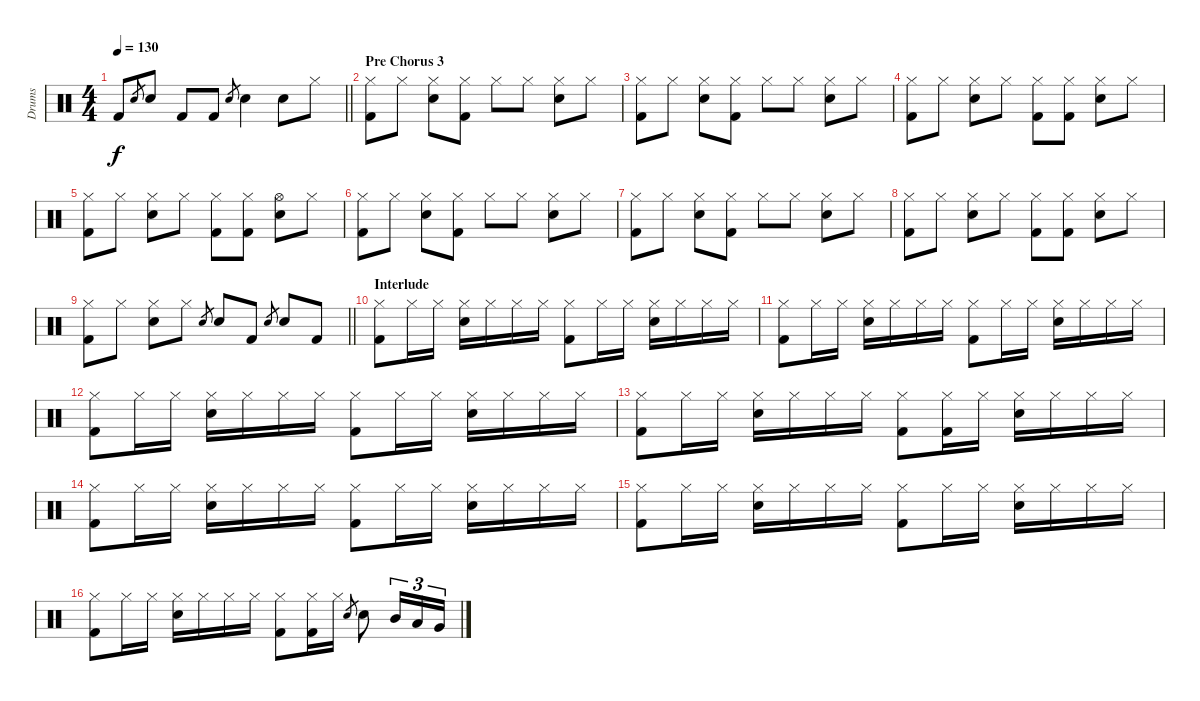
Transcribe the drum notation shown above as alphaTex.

\track ("Drums" "Drums") {instrument percussion}
\staff {score}
\articulation defaults
\ts (4 4)
\tempo 130
\clef neutral
\barLineRight lightlight
\ks c "Kick (hit) 2".8{dy f} "Snare (hit) 2".8{gr} "Snare (hit) 2".8 "Kick (hit) 2".8 "Kick (hit) 2".8 "Snare (hit) 2".8{gr} "Snare (hit) 2".4 "Snare (hit) 2".8 "Hi-Hat (closed)".8
|
\section ("" "Pre Chorus 3")
("Hi-Hat (closed)" "Kick (hit) 2").8 "Hi-Hat (closed)".8 ("Hi-Hat (closed)" "Snare (hit) 2").8 ("Hi-Hat (closed)" "Kick (hit) 2").8 "Hi-Hat (closed)".8 "Hi-Hat (closed)".8 ("Hi-Hat (closed)" "Snare (hit) 2").8 "Hi-Hat (closed)".8 |
("Hi-Hat (closed)" "Kick (hit) 2").8 "Hi-Hat (closed)".8 ("Hi-Hat (closed)" "Snare (hit) 2").8 ("Hi-Hat (closed)" "Kick (hit) 2").8 "Hi-Hat (closed)".8 "Hi-Hat (closed)".8 ("Hi-Hat (closed)" "Snare (hit) 2").8 "Hi-Hat (closed)".8 |
("Hi-Hat (closed)" "Kick (hit) 2").8 "Hi-Hat (closed)".8 ("Hi-Hat (closed)" "Snare (hit) 2").8 "Hi-Hat (closed)".8 ("Hi-Hat (closed)" "Kick (hit) 2").8 ("Hi-Hat (closed)" "Kick (hit) 2").8 ("Hi-Hat (closed)" "Snare (hit) 2").8 "Hi-Hat (closed)".8 |
("Hi-Hat (closed)" "Kick (hit) 2").8 "Hi-Hat (closed)".8 ("Hi-Hat (closed)" "Snare (hit) 2").8 "Hi-Hat (closed)".8 ("Hi-Hat (closed)" "Kick (hit) 2").8 ("Hi-Hat (closed)" "Kick (hit) 2").8 ("Hi-Hat (open)" "Snare (hit) 2").8 "Hi-Hat (closed)".8 |
("Hi-Hat (closed)" "Kick (hit) 2").8 "Hi-Hat (closed)".8 ("Hi-Hat (closed)" "Snare (hit) 2").8 ("Hi-Hat (closed)" "Kick (hit) 2").8 "Hi-Hat (closed)".8 "Hi-Hat (closed)".8 ("Hi-Hat (closed)" "Snare (hit) 2").8 "Hi-Hat (closed)".8 |
("Hi-Hat (closed)" "Kick (hit) 2").8 "Hi-Hat (closed)".8 ("Hi-Hat (closed)" "Snare (hit) 2").8 ("Hi-Hat (closed)" "Kick (hit) 2").8 "Hi-Hat (closed)".8 "Hi-Hat (closed)".8 ("Hi-Hat (closed)" "Snare (hit) 2").8 "Hi-Hat (closed)".8 |
("Hi-Hat (closed)" "Kick (hit) 2").8 "Hi-Hat (closed)".8 ("Hi-Hat (closed)" "Snare (hit) 2").8 "Hi-Hat (closed)".8 ("Hi-Hat (closed)" "Kick (hit) 2").8 ("Hi-Hat (closed)" "Kick (hit) 2").8 ("Hi-Hat (closed)" "Snare (hit) 2").8 "Hi-Hat (closed)".8 |
\barLineRight lightlight
("Hi-Hat (closed)" "Kick (hit) 2").8 "Hi-Hat (closed)".8 ("Hi-Hat (closed)" "Snare (hit) 2").8 "Hi-Hat (closed)".8 "Snare (hit) 2".8{gr} "Snare (hit) 2".8 "Kick (hit) 2".8 "Snare (hit) 2".8{gr} "Snare (hit) 2".8 "Kick (hit) 2".8 |
\section ("" "Interlude")
("Hi-Hat (closed)" "Kick (hit) 2").8 "Hi-Hat (closed)".16 "Hi-Hat (closed)".16 ("Hi-Hat (closed)" "Snare (hit) 2").16 "Hi-Hat (closed)".16 "Hi-Hat (closed)".16 "Hi-Hat (closed)".16 ("Hi-Hat (closed)" "Kick (hit) 2").8 "Hi-Hat (closed)".16 "Hi-Hat (closed)".16 ("Hi-Hat (closed)" "Snare (hit) 2").16 "Hi-Hat (closed)".16 "Hi-Hat (closed)".16 "Hi-Hat (closed)".16 |
("Hi-Hat (closed)" "Kick (hit) 2").8 "Hi-Hat (closed)".16 "Hi-Hat (closed)".16 ("Hi-Hat (closed)" "Snare (hit) 2").16 "Hi-Hat (closed)".16 "Hi-Hat (closed)".16 "Hi-Hat (closed)".16 ("Hi-Hat (closed)" "Kick (hit) 2").8 "Hi-Hat (closed)".16 "Hi-Hat (closed)".16 ("Hi-Hat (closed)" "Snare (hit) 2").16 "Hi-Hat (closed)".16 "Hi-Hat (closed)".16 "Hi-Hat (closed)".16 |
("Hi-Hat (closed)" "Kick (hit) 2").8 "Hi-Hat (closed)".16 "Hi-Hat (closed)".16 ("Hi-Hat (closed)" "Snare (hit) 2").16 "Hi-Hat (closed)".16 "Hi-Hat (closed)".16 "Hi-Hat (closed)".16 ("Hi-Hat (closed)" "Kick (hit) 2").8 "Hi-Hat (closed)".16 "Hi-Hat (closed)".16 ("Hi-Hat (closed)" "Snare (hit) 2").16 "Hi-Hat (closed)".16 "Hi-Hat (closed)".16 "Hi-Hat (closed)".16 |
("Hi-Hat (closed)" "Kick (hit) 2").8 "Hi-Hat (closed)".16 "Hi-Hat (closed)".16 ("Hi-Hat (closed)" "Snare (hit) 2").16 "Hi-Hat (closed)".16 "Hi-Hat (closed)".16 "Hi-Hat (closed)".16 ("Hi-Hat (closed)" "Kick (hit) 2").8 ("Hi-Hat (closed)" "Kick (hit) 2").16 "Hi-Hat (closed)".16 ("Hi-Hat (closed)" "Snare (hit) 2").16 "Hi-Hat (closed)".16 "Hi-Hat (closed)".16 "Hi-Hat (closed)".16 |
("Hi-Hat (closed)" "Kick (hit) 2").8 "Hi-Hat (closed)".16 "Hi-Hat (closed)".16 ("Hi-Hat (closed)" "Snare (hit) 2").16 "Hi-Hat (closed)".16 "Hi-Hat (closed)".16 "Hi-Hat (closed)".16 ("Hi-Hat (closed)" "Kick (hit) 2").8 "Hi-Hat (closed)".16 "Hi-Hat (closed)".16 ("Hi-Hat (closed)" "Snare (hit) 2").16 "Hi-Hat (closed)".16 "Hi-Hat (closed)".16 "Hi-Hat (closed)".16 |
("Hi-Hat (closed)" "Kick (hit) 2").8 "Hi-Hat (closed)".16 "Hi-Hat (closed)".16 ("Hi-Hat (closed)" "Snare (hit) 2").16 "Hi-Hat (closed)".16 "Hi-Hat (closed)".16 "Hi-Hat (closed)".16 ("Hi-Hat (closed)" "Kick (hit) 2").8 "Hi-Hat (closed)".16 "Hi-Hat (closed)".16 ("Hi-Hat (closed)" "Snare (hit) 2").16 "Hi-Hat (closed)".16 "Hi-Hat (closed)".16 "Hi-Hat (closed)".16 |
("Hi-Hat (closed)" "Kick (hit) 2").8 "Hi-Hat (closed)".16 "Hi-Hat (closed)".16 ("Hi-Hat (closed)" "Snare (hit) 2").16 "Hi-Hat (closed)".16 "Hi-Hat (closed)".16 "Hi-Hat (closed)".16 ("Hi-Hat (closed)" "Kick (hit) 2").8 ("Hi-Hat (closed)" "Kick (hit) 2").16 "Hi-Hat (closed)".16 "Snare (hit) 2".8{gr} "Snare (hit) 2".8 "Mid Tom (hit)".16{tu (3 2)} "Low Tom (hit)".16{tu (3 2)} "Very Low Tom (hit)".16{tu (3 2)}
